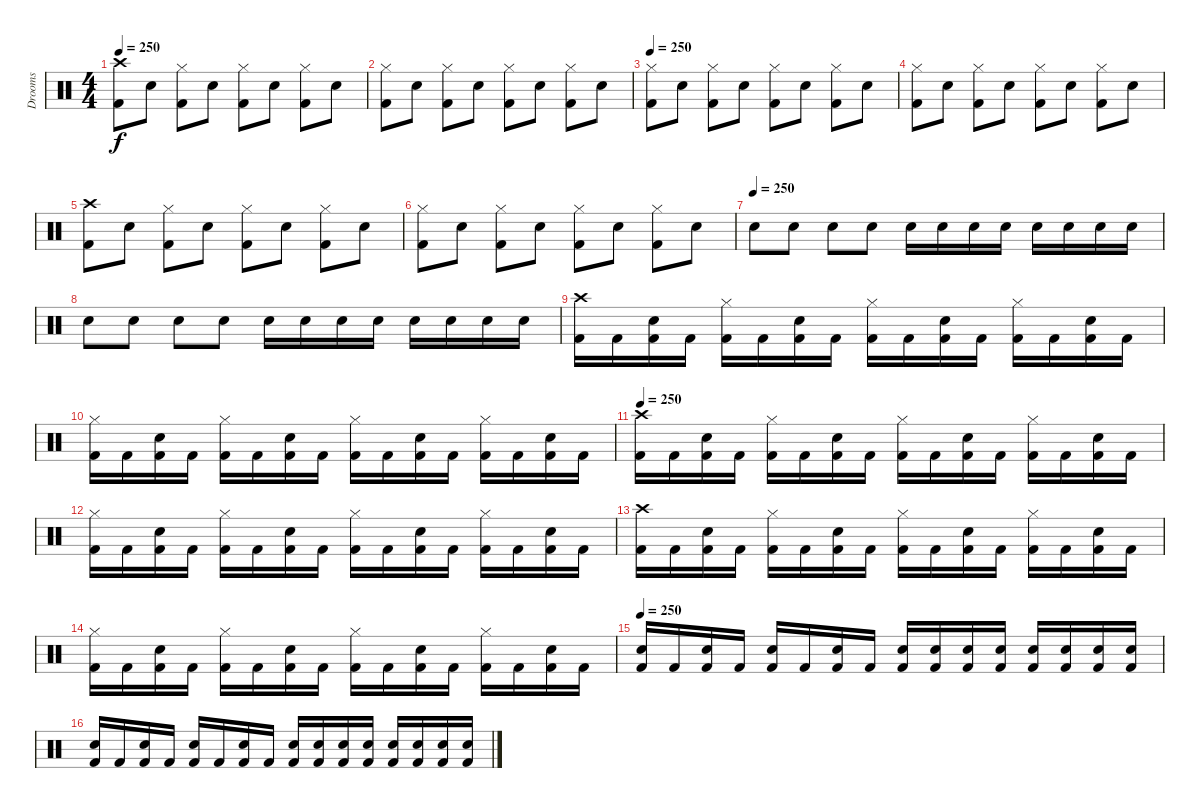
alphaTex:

\track ("Drooms" "Drooms") {instrument percussion}
\staff {score}
\articulation defaults
\ts (4 4)
\tempo 250
\clef neutral
\ks c
("Crash high (hit)" "Kick (hit) 2").8{dy f} "Snare (hit) 2".8 ("Hi-Hat (closed)" "Kick (hit) 2").8 "Snare (hit) 2".8 ("Hi-Hat (closed)" "Kick (hit) 2").8 "Snare (hit) 2".8 ("Hi-Hat (closed)" "Kick (hit) 2").8 "Snare (hit) 2".8 |
("Hi-Hat (closed)" "Kick (hit) 2").8 "Snare (hit) 2".8 ("Hi-Hat (closed)" "Kick (hit) 2").8 "Snare (hit) 2".8 ("Hi-Hat (closed)" "Kick (hit) 2").8 "Snare (hit) 2".8 ("Hi-Hat (closed)" "Kick (hit) 2").8 "Snare (hit) 2".8 |
\tempo 250
("Hi-Hat (closed)" "Kick (hit) 2").8 "Snare (hit) 2".8 ("Hi-Hat (closed)" "Kick (hit) 2").8 "Snare (hit) 2".8 ("Hi-Hat (closed)" "Kick (hit) 2").8 "Snare (hit) 2".8 ("Hi-Hat (closed)" "Kick (hit) 2").8 "Snare (hit) 2".8 |
("Hi-Hat (closed)" "Kick (hit) 2").8 "Snare (hit) 2".8 ("Hi-Hat (closed)" "Kick (hit) 2").8 "Snare (hit) 2".8 ("Hi-Hat (closed)" "Kick (hit) 2").8 "Snare (hit) 2".8 ("Hi-Hat (closed)" "Kick (hit) 2").8 "Snare (hit) 2".8 |
("Crash high (hit)" "Kick (hit) 2").8 "Snare (hit) 2".8 ("Hi-Hat (closed)" "Kick (hit) 2").8 "Snare (hit) 2".8 ("Hi-Hat (closed)" "Kick (hit) 2").8 "Snare (hit) 2".8 ("Hi-Hat (closed)" "Kick (hit) 2").8 "Snare (hit) 2".8 |
("Hi-Hat (closed)" "Kick (hit) 2").8 "Snare (hit) 2".8 ("Hi-Hat (closed)" "Kick (hit) 2").8 "Snare (hit) 2".8 ("Hi-Hat (closed)" "Kick (hit) 2").8 "Snare (hit) 2".8 ("Hi-Hat (closed)" "Kick (hit) 2").8 "Snare (hit) 2".8 |
\tempo (250)
"Snare (hit) 2".8 "Snare (hit) 2".8 "Snare (hit) 2".8 "Snare (hit) 2".8 "Snare (hit) 2".16 "Snare (hit) 2".16 "Snare (hit) 2".16 "Snare (hit) 2".16 "Snare (hit) 2".16 "Snare (hit) 2".16 "Snare (hit) 2".16 "Snare (hit) 2".16 |
"Snare (hit) 2".8 "Snare (hit) 2".8 "Snare (hit) 2".8 "Snare (hit) 2".8 "Snare (hit) 2".16 "Snare (hit) 2".16 "Snare (hit) 2".16 "Snare (hit) 2".16 "Snare (hit) 2".16 "Snare (hit) 2".16 "Snare (hit) 2".16 "Snare (hit) 2".16 |
("Kick (hit) 2" "Crash high (hit)").16 "Kick (hit) 2".16 ("Kick (hit) 2" "Snare (hit) 2").16 "Kick (hit) 2".16 ("Kick (hit) 2" "Hi-Hat (closed)").16 "Kick (hit) 2".16 ("Kick (hit) 2" "Snare (hit) 2").16 "Kick (hit) 2".16 ("Kick (hit) 2" "Hi-Hat (closed)").16 "Kick (hit) 2".16 ("Kick (hit) 2" "Snare (hit) 2").16 "Kick (hit) 2".16 ("Kick (hit) 2" "Hi-Hat (closed)").16 "Kick (hit) 2".16 ("Kick (hit) 2" "Snare (hit) 2").16 "Kick (hit) 2".16 |
("Hi-Hat (closed)" "Kick (hit) 2").16 "Kick (hit) 2".16 ("Snare (hit) 2" "Kick (hit) 2").16 "Kick (hit) 2".16 ("Hi-Hat (closed)" "Kick (hit) 2").16 "Kick (hit) 2".16 ("Snare (hit) 2" "Kick (hit) 2").16 "Kick (hit) 2".16 ("Hi-Hat (closed)" "Kick (hit) 2").16 "Kick (hit) 2".16 ("Snare (hit) 2" "Kick (hit) 2").16 "Kick (hit) 2".16 ("Hi-Hat (closed)" "Kick (hit) 2").16 "Kick (hit) 2".16 ("Snare (hit) 2" "Kick (hit) 2").16 "Kick (hit) 2".16 |
\tempo 250
("Kick (hit) 2" "Crash high (hit)").16 "Kick (hit) 2".16 ("Kick (hit) 2" "Snare (hit) 2").16 "Kick (hit) 2".16 ("Kick (hit) 2" "Hi-Hat (closed)").16 "Kick (hit) 2".16 ("Kick (hit) 2" "Snare (hit) 2").16 "Kick (hit) 2".16 ("Kick (hit) 2" "Hi-Hat (closed)").16 "Kick (hit) 2".16 ("Kick (hit) 2" "Snare (hit) 2").16 "Kick (hit) 2".16 ("Kick (hit) 2" "Hi-Hat (closed)").16 "Kick (hit) 2".16 ("Kick (hit) 2" "Snare (hit) 2").16 "Kick (hit) 2".16 |
("Hi-Hat (closed)" "Kick (hit) 2").16 "Kick (hit) 2".16 ("Snare (hit) 2" "Kick (hit) 2").16 "Kick (hit) 2".16 ("Hi-Hat (closed)" "Kick (hit) 2").16 "Kick (hit) 2".16 ("Snare (hit) 2" "Kick (hit) 2").16 "Kick (hit) 2".16 ("Hi-Hat (closed)" "Kick (hit) 2").16 "Kick (hit) 2".16 ("Snare (hit) 2" "Kick (hit) 2").16 "Kick (hit) 2".16 ("Hi-Hat (closed)" "Kick (hit) 2").16 "Kick (hit) 2".16 ("Snare (hit) 2" "Kick (hit) 2").16 "Kick (hit) 2".16 |
("Kick (hit) 2" "Crash high (hit)").16 "Kick (hit) 2".16 ("Kick (hit) 2" "Snare (hit) 2").16 "Kick (hit) 2".16 ("Kick (hit) 2" "Hi-Hat (closed)").16 "Kick (hit) 2".16 ("Kick (hit) 2" "Snare (hit) 2").16 "Kick (hit) 2".16 ("Kick (hit) 2" "Hi-Hat (closed)").16 "Kick (hit) 2".16 ("Kick (hit) 2" "Snare (hit) 2").16 "Kick (hit) 2".16 ("Kick (hit) 2" "Hi-Hat (closed)").16 "Kick (hit) 2".16 ("Kick (hit) 2" "Snare (hit) 2").16 "Kick (hit) 2".16 |
("Hi-Hat (closed)" "Kick (hit) 2").16 "Kick (hit) 2".16 ("Snare (hit) 2" "Kick (hit) 2").16 "Kick (hit) 2".16 ("Hi-Hat (closed)" "Kick (hit) 2").16 "Kick (hit) 2".16 ("Snare (hit) 2" "Kick (hit) 2").16 "Kick (hit) 2".16 ("Hi-Hat (closed)" "Kick (hit) 2").16 "Kick (hit) 2".16 ("Snare (hit) 2" "Kick (hit) 2").16 "Kick (hit) 2".16 ("Hi-Hat (closed)" "Kick (hit) 2").16 "Kick (hit) 2".16 ("Snare (hit) 2" "Kick (hit) 2").16 "Kick (hit) 2".16 |
\tempo 250
("Kick (hit) 2" "Snare (hit) 2").16 "Kick (hit) 2".16 ("Kick (hit) 2" "Snare (hit) 2").16 "Kick (hit) 2".16 ("Kick (hit) 2" "Snare (hit) 2").16 "Kick (hit) 2".16 ("Kick (hit) 2" "Snare (hit) 2").16 "Kick (hit) 2".16 ("Kick (hit) 2" "Snare (hit) 2").16 ("Kick (hit) 2" "Snare (hit) 2").16 ("Kick (hit) 2" "Snare (hit) 2").16 ("Kick (hit) 2" "Snare (hit) 2").16 ("Kick (hit) 2" "Snare (hit) 2").16 ("Kick (hit) 2" "Snare (hit) 2").16 ("Kick (hit) 2" "Snare (hit) 2").16 ("Kick (hit) 2" "Snare (hit) 2").16 |
("Kick (hit) 2" "Snare (hit) 2").16 "Kick (hit) 2".16 ("Kick (hit) 2" "Snare (hit) 2").16 "Kick (hit) 2".16 ("Kick (hit) 2" "Snare (hit) 2").16 "Kick (hit) 2".16 ("Kick (hit) 2" "Snare (hit) 2").16 "Kick (hit) 2".16 ("Kick (hit) 2" "Snare (hit) 2").16 ("Kick (hit) 2" "Snare (hit) 2").16 ("Kick (hit) 2" "Snare (hit) 2").16 ("Kick (hit) 2" "Snare (hit) 2").16 ("Kick (hit) 2" "Snare (hit) 2").16 ("Kick (hit) 2" "Snare (hit) 2").16 ("Kick (hit) 2" "Snare (hit) 2").16 ("Kick (hit) 2" "Snare (hit) 2").16
